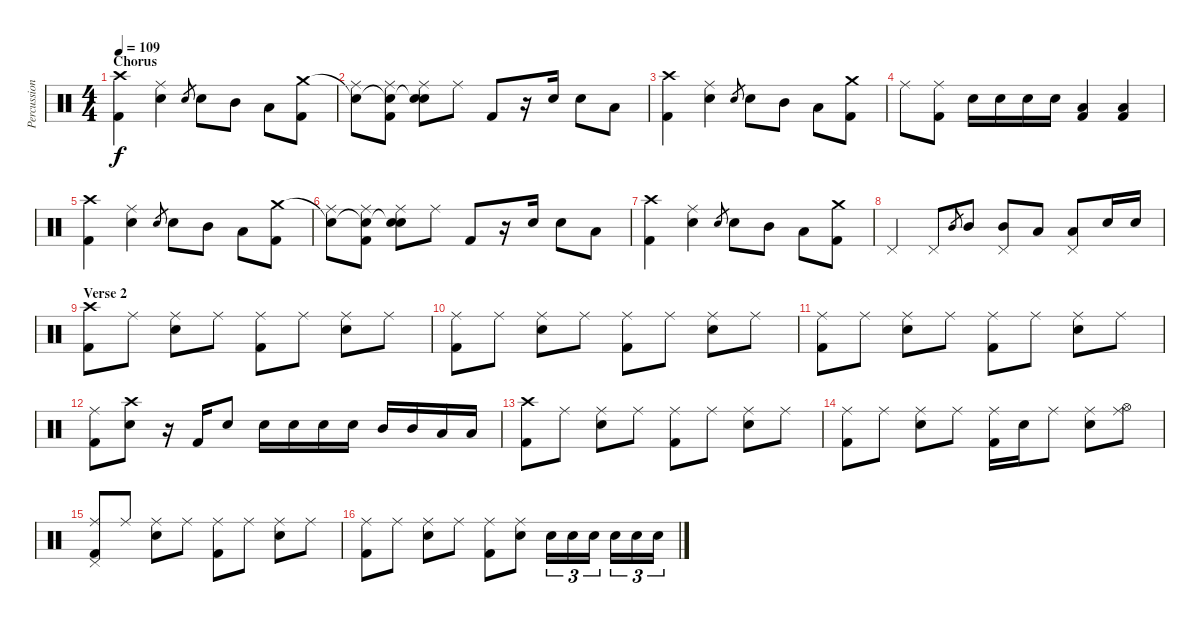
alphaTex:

\track ("Percussion" "Percussion") {instrument percussion}
\staff {score}
\articulation defaults
\ts (4 4)
\section ("" "Chorus")
\tempo 109
\clef neutral
\ks c
("Crash high (hit)" "Kick (hit) 2").4{dy f} ("Ride (middle)" "Electric Snare (hit)").4 "Electric Snare (hit)".8{gr} "Electric Snare (hit)".8 "Mid Tom (hit)".8 "Low Tom (hit)".8 ("Crash medium (hit)" "Kick (hit) 2").8 |
("Snare (hit)"{t} "Ride (middle)").8 ("Snare (hit)"{t} "Ride (middle)" "Kick (hit) 2").8 ("Snare (hit)"{t} "Ride (middle)" "Electric Snare (hit)").8 "Ride (middle)".8 "Kick (hit) 2".8 r.16 "Electric Snare (hit)".16 "Electric Snare (hit)".8 "Low Tom (hit)".8 |
("Crash high (hit)" "Kick (hit) 2").4 ("Ride (middle)" "Electric Snare (hit)").4 "Electric Snare (hit)".8{gr} "Electric Snare (hit)".8 "Mid Tom (hit)".8 "Low Tom (hit)".8 ("Crash medium (hit)" "Kick (hit) 2").8 |
"Ride (middle)".8 ("Ride (middle)" "Kick (hit) 2").8 "Electric Snare (hit)".16 "Electric Snare (hit)".16 "Electric Snare (hit)".16 "Electric Snare (hit)".16 ("Low Tom (hit)" "Kick (hit) 2").4 ("Low Tom (hit)" "Kick (hit) 2").4 |
("Crash high (hit)" "Kick (hit) 2").4 ("Ride (middle)" "Electric Snare (hit)").4 "Electric Snare (hit)".8{gr} "Electric Snare (hit)".8 "Mid Tom (hit)".8 "Low Tom (hit)".8 ("Crash medium (hit)" "Kick (hit) 2").8 |
("Snare (hit)"{t} "Ride (middle)").8 ("Snare (hit)"{t} "Ride (middle)" "Kick (hit) 2").8 ("Snare (hit)"{t} "Ride (middle)" "Electric Snare (hit)").8 "Ride (middle)".8 "Kick (hit) 2".8 r.16 "Electric Snare (hit)".16 "Electric Snare (hit)".8 "Low Tom (hit)".8 |
("Crash high (hit)" "Kick (hit) 2").4 ("Ride (middle)" "Electric Snare (hit)").4 "Electric Snare (hit)".8{gr} "Electric Snare (hit)".8 "Mid Tom (hit)".8 "Low Tom (hit)".8 ("Crash medium (hit)" "Kick (hit) 2").8 |
"Pedal Hi-Hat (hit)".4 "Pedal Hi-Hat (hit)".8 "Mid Tom (hit)".8{gr} "Mid Tom (hit)".8 ("Pedal Hi-Hat (hit)" "Mid Tom (hit)").8 "Low Tom (hit)".8 ("Pedal Hi-Hat (hit)" "Low Tom (hit)").8 "Electric Snare (hit)".16 "Electric Snare (hit)".16 |
\section ("" "Verse 2")
("Crash high (hit)" "Kick (hit) 2").8 "Ride (middle)".8 ("Ride (middle)" "Electric Snare (hit)").8 "Ride (middle)".8 ("Ride (middle)" "Kick (hit) 2").8 "Ride (middle)".8 ("Ride (middle)" "Electric Snare (hit)").8 "Ride (middle)".8 |
("Ride (middle)" "Kick (hit) 2").8 "Ride (middle)".8 ("Ride (middle)" "Electric Snare (hit)").8 "Ride (middle)".8 ("Ride (middle)" "Kick (hit) 2").8 "Ride (middle)".8 ("Ride (middle)" "Electric Snare (hit)").8 "Ride (middle)".8 |
("Ride (middle)" "Kick (hit) 2").8 "Ride (middle)".8 ("Ride (middle)" "Electric Snare (hit)").8 "Ride (middle)".8 ("Ride (middle)" "Kick (hit) 2").8 "Ride (middle)".8 ("Ride (middle)" "Electric Snare (hit)").8 "Ride (middle)".8 |
("Ride (middle)" "Kick (hit) 2").8 ("Crash high (hit)" "Electric Snare (hit)").8 r.16 "Kick (hit) 2".16 "Electric Snare (hit)".8 "Electric Snare (hit)".16 "Electric Snare (hit)".16 "Electric Snare (hit)".16 "Electric Snare (hit)".16 "Mid Tom (hit)".16 "Mid Tom (hit)".16 "Low Tom (hit)".16 "Low Tom (hit)".16 |
("Crash high (hit)" "Kick (hit) 2").8 "Ride (middle)".8 ("Ride (middle)" "Electric Snare (hit)").8 "Ride (middle)".8 ("Ride (middle)" "Kick (hit) 2").8 "Ride (middle)".8 ("Ride (middle)" "Electric Snare (hit)").8 "Ride (middle)".8 |
("Ride (middle)" "Kick (hit) 2").8 "Ride (middle)".8 ("Ride (middle)" "Electric Snare (hit)").8 "Ride (middle)".8 ("Ride (middle)" "Kick (hit) 2").16 "Electric Snare (hit)".16 "Ride (middle)".8 ("Ride (middle)" "Electric Snare (hit)").8 ("Hi-Hat (open)" "Ride (middle)").8 |
("Pedal Hi-Hat (hit)" "Ride (middle)" "Kick (hit) 2").8 "Ride (middle)".8 ("Ride (middle)" "Electric Snare (hit)").8 "Ride (middle)".8 ("Ride (middle)" "Kick (hit) 2").8 "Ride (middle)".8 ("Ride (middle)" "Electric Snare (hit)").8 "Ride (middle)".8 |
("Ride (middle)" "Kick (hit) 2").8 "Ride (middle)".8 ("Ride (middle)" "Electric Snare (hit)").8 "Ride (middle)".8 ("Ride (middle)" "Kick (hit) 2").8 ("Ride (middle)" "Electric Snare (hit)").8 "Electric Snare (hit)".16{tu (3 2)} "Electric Snare (hit)".16{tu (3 2)} "Electric Snare (hit)".16{tu (3 2)} "Electric Snare (hit)".16{tu (3 2)} "Electric Snare (hit)".16{tu (3 2)} "Electric Snare (hit)".16{tu (3 2)}
